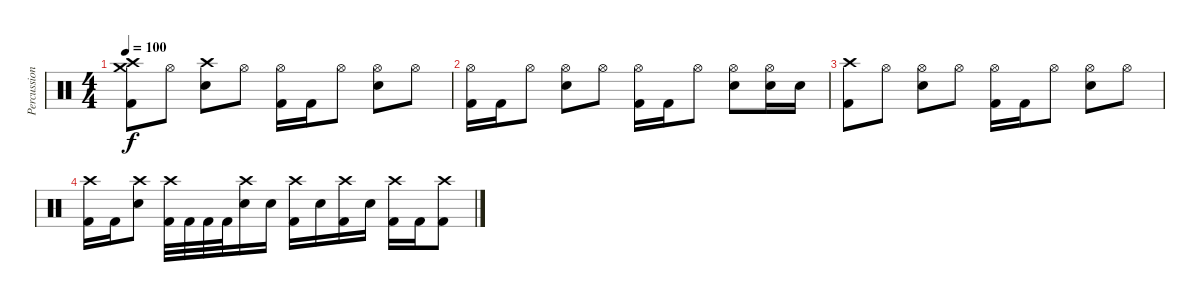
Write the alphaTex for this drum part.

\track ("Percussion" "Percussion") {instrument percussion}
\staff {score}
\articulation defaults
\ts (4 4)
\tempo 100
\clef neutral
\ks c
("Crash high (hit)" "Crash medium (hit)" "Kick (hit) 2").8{dy f} "Hi-Hat (open)".8 ("Crash high (hit)" "Electric Snare (hit)").8 "Hi-Hat (open)".8 ("Hi-Hat (open)" "Kick (hit) 2").16 "Kick (hit) 2".16 "Hi-Hat (open)".8 ("Hi-Hat (open)" "Electric Snare (hit)").8 "Hi-Hat (open)".8 |
("Hi-Hat (open)" "Kick (hit) 2").16 "Kick (hit) 2".16 "Hi-Hat (open)".8 ("Hi-Hat (open)" "Electric Snare (hit)").8 "Hi-Hat (open)".8 ("Hi-Hat (open)" "Kick (hit) 2").16 "Kick (hit) 2".16 "Hi-Hat (open)".8 ("Hi-Hat (open)" "Electric Snare (hit)").8 ("Hi-Hat (open)" "Electric Snare (hit)").16 "Electric Snare (hit)".16 |
("Crash high (hit)" "Kick (hit) 2").8 "Hi-Hat (open)".8 ("Hi-Hat (open)" "Electric Snare (hit)").8 "Hi-Hat (open)".8 ("Hi-Hat (open)" "Kick (hit) 2").16 "Kick (hit) 2".16 "Hi-Hat (open)".8 ("Hi-Hat (open)" "Electric Snare (hit)").8 "Hi-Hat (open)".8 |
("Crash high (hit)" "Kick (hit) 2").16 "Kick (hit) 2".16 ("Crash high (hit)" "Electric Snare (hit)").8 ("Crash high (hit)" "Kick (hit) 2").32 "Kick (hit) 2".32 "Kick (hit) 2".32 "Kick (hit) 2".32 ("Crash high (hit)" "Electric Snare (hit)").16 "Electric Snare (hit)".16 ("Crash high (hit)" "Kick (hit) 2").16 "Electric Snare (hit)".16 ("Crash high (hit)" "Kick (hit) 2").16 "Electric Snare (hit)".16 ("Crash high (hit)" "Kick (hit) 2").16 "Kick (hit) 2".16 ("Crash high (hit)" "Kick (hit) 2").8
